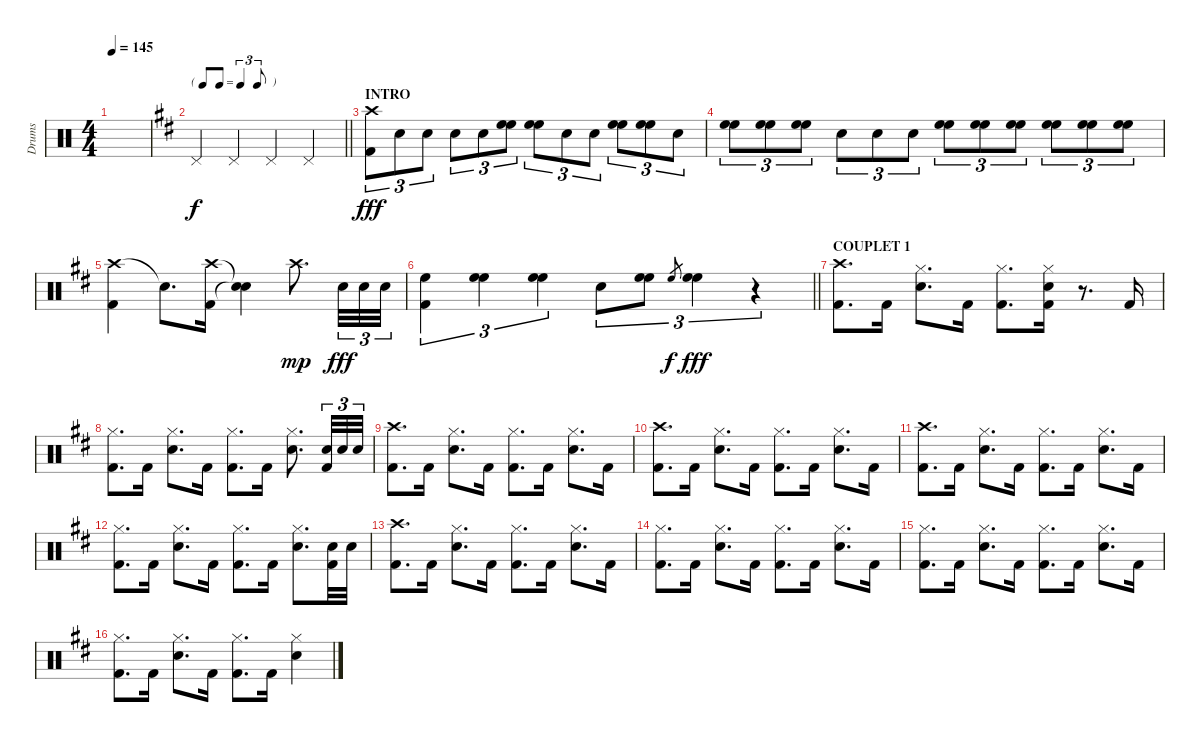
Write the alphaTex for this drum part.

\track ("Drums" "Drums") {instrument percussion}
\staff {score}
\articulation defaults
\ts (4 4)
\tempo 145
\clef neutral
\ks c
|
\tf triplet8th
\barLineRight lightlight
\ks d "Pedal Hi-Hat (hit)".4 "Pedal Hi-Hat (hit)".4 "Pedal Hi-Hat (hit)".4 "Pedal Hi-Hat (hit)".4
|
\section ("" "INTRO")
("Crash high (hit)" "Kick (hit) 2").8{tu (3 2) dy fff} "Snare (hit) 2".8{tu (3 2)} "Snare (hit) 2".8{tu (3 2)} "Snare (hit) 2".8{tu (3 2)} "Snare (hit) 2".8{tu (3 2)} ("High Floor Tom (hit)" "High Floor Tom (hit)").8{tu (3 2)} ("High Floor Tom (hit)" "High Floor Tom (hit)").8{tu (3 2)} "Snare (hit) 2".8{tu (3 2)} "Snare (hit) 2".8{tu (3 2)} ("High Floor Tom (hit)" "High Floor Tom (hit)").8{tu (3 2)} ("High Floor Tom (hit)" "High Floor Tom (hit)").8{tu (3 2)} "Snare (hit) 2".8{tu (3 2)} |
("High Floor Tom (hit)" "High Floor Tom (hit)").8{tu (3 2)} ("High Floor Tom (hit)" "High Floor Tom (hit)").8{tu (3 2)} ("High Floor Tom (hit)" "High Floor Tom (hit)").8{tu (3 2)} "Snare (hit) 2".8{tu (3 2)} "Snare (hit) 2".8{tu (3 2)} "Snare (hit) 2".8{tu (3 2)} ("High Floor Tom (hit)" "High Floor Tom (hit)").8{tu (3 2)} ("High Floor Tom (hit)" "High Floor Tom (hit)").8{tu (3 2)} ("High Floor Tom (hit)" "High Floor Tom (hit)").8{tu (3 2)} ("High Floor Tom (hit)" "High Floor Tom (hit)").8{tu (3 2)} ("High Floor Tom (hit)" "High Floor Tom (hit)").8{tu (3 2)} ("High Floor Tom (hit)" "High Floor Tom (hit)").8{tu (3 2)} |
("Crash high (hit)" "Kick (hit) 2").4 "Snare (hit)"{t}.8{d} ("Crash high (hit)" "Kick (hit) 2").16 ("Snare (hit)"{t} "Snare (hit)"{t}).4 "Crash high (hit)".8{d dy mp} "Snare (hit) 2".32{tu (3 2) dy fff} "Snare (hit) 2".32{tu (3 2)} "Snare (hit) 2".32{tu (3 2)} |
\barLineRight lightlight
("High Floor Tom (hit)" "Kick (hit) 2").4{tu (3 2)} ("High Floor Tom (hit)" "High Floor Tom (hit)").4{tu (3 2)} ("High Floor Tom (hit)" "High Floor Tom (hit)").4{tu (3 2)} "Snare (hit) 2".8{tu (3 2)} ("High Floor Tom (hit)" "High Floor Tom (hit)").8{tu (3 2)} "High Floor Tom (hit)".8{gr dy f} ("High Floor Tom (hit)" "High Floor Tom (hit)").4{tu (3 2) dy fff} r.4{tu (3 2)} |
\section ("" "COUPLET 1")
("Crash high (hit)" "Kick (hit) 2").8{d} "Kick (hit) 2".16 ("Hi-Hat (closed)" "Snare (hit) 2").8{d} "Kick (hit) 2".16 ("Hi-Hat (closed)" "Kick (hit) 2").8{d} ("Hi-Hat (closed)" "Snare (hit) 2" "Kick (hit) 2").16 r.8{d} "Kick (hit) 2".16 |
("Hi-Hat (closed)" "Kick (hit) 2").8{d} "Kick (hit) 2".16 ("Hi-Hat (closed)" "Snare (hit) 2").8{d} "Kick (hit) 2".16 ("Hi-Hat (closed)" "Kick (hit) 2").8{d} "Kick (hit) 2".16 ("Hi-Hat (closed)" "Snare (hit) 2").8{d} ("Snare (hit) 2" "Kick (hit) 2").32{tu (3 2)} "Snare (hit) 2".32{tu (3 2)} "Snare (hit) 2".32{tu (3 2)} |
("Crash high (hit)" "Kick (hit) 2").8{d} "Kick (hit) 2".16 ("Hi-Hat (closed)" "Snare (hit) 2").8{d} "Kick (hit) 2".16 ("Hi-Hat (closed)" "Kick (hit) 2").8{d} "Kick (hit) 2".16 ("Hi-Hat (closed)" "Snare (hit) 2").8{d} "Kick (hit) 2".16 |
("Crash high (hit)" "Kick (hit) 2").8{d} "Kick (hit) 2".16 ("Hi-Hat (closed)" "Snare (hit) 2").8{d} "Kick (hit) 2".16 ("Hi-Hat (closed)" "Kick (hit) 2").8{d} "Kick (hit) 2".16 ("Hi-Hat (closed)" "Snare (hit) 2").8{d} "Kick (hit) 2".16 |
("Crash high (hit)" "Kick (hit) 2").8{d} "Kick (hit) 2".16 ("Hi-Hat (closed)" "Snare (hit) 2").8{d} "Kick (hit) 2".16 ("Hi-Hat (closed)" "Kick (hit) 2").8{d} "Kick (hit) 2".16 ("Hi-Hat (closed)" "Snare (hit) 2").8{d} "Kick (hit) 2".16 |
("Hi-Hat (closed)" "Kick (hit) 2").8{d} "Kick (hit) 2".16 ("Hi-Hat (closed)" "Snare (hit) 2").8{d} "Kick (hit) 2".16 ("Hi-Hat (closed)" "Kick (hit) 2").8{d} "Kick (hit) 2".16 ("Hi-Hat (closed)" "Snare (hit) 2").8{d} ("Snare (hit) 2" "Kick (hit) 2").32 "Snare (hit) 2".32 |
("Crash high (hit)" "Kick (hit) 2").8{d} "Kick (hit) 2".16 ("Hi-Hat (closed)" "Snare (hit) 2").8{d} "Kick (hit) 2".16 ("Hi-Hat (closed)" "Kick (hit) 2").8{d} "Kick (hit) 2".16 ("Hi-Hat (closed)" "Snare (hit) 2").8{d} "Kick (hit) 2".16 |
("Hi-Hat (closed)" "Kick (hit) 2").8{d} "Kick (hit) 2".16 ("Hi-Hat (closed)" "Snare (hit) 2").8{d} "Kick (hit) 2".16 ("Hi-Hat (closed)" "Kick (hit) 2").8{d} "Kick (hit) 2".16 ("Hi-Hat (closed)" "Snare (hit) 2").8{d} "Kick (hit) 2".16 |
("Hi-Hat (closed)" "Kick (hit) 2").8{d} "Kick (hit) 2".16 ("Hi-Hat (closed)" "Snare (hit) 2").8{d} "Kick (hit) 2".16 ("Hi-Hat (closed)" "Kick (hit) 2").8{d} "Kick (hit) 2".16 ("Hi-Hat (closed)" "Snare (hit) 2").8{d} "Kick (hit) 2".16 |
("Hi-Hat (closed)" "Kick (hit) 2").8{d} "Kick (hit) 2".16 ("Hi-Hat (closed)" "Snare (hit) 2").8{d} "Kick (hit) 2".16 ("Hi-Hat (closed)" "Kick (hit) 2").8{d} "Kick (hit) 2".16 ("Hi-Hat (closed)" "Snare (hit) 2").4
